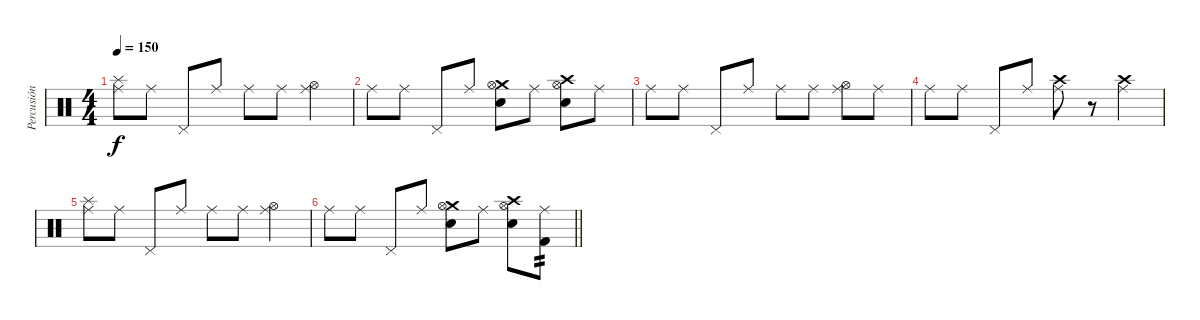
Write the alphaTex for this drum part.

\track ("Percusión" "Percusión") {instrument percussion}
\staff {score}
\articulation defaults
\ts (4 4)
\tempo 150
\clef neutral
\ks c
("Splash (hit)" "Ride (middle)").8{dy f} "Ride (middle)".8 "Pedal Hi-Hat (hit)".8 "Ride (middle)".8 "Ride (middle)".8 "Ride (middle)".8 ("Hi-Hat (open)" "Ride (middle)").4 |
"Ride (middle)".8 "Ride (middle)".8 "Pedal Hi-Hat (hit)".8 "Ride (middle)".8 ("Snare (hit) 2" "Crash medium (hit)" "Hi-Hat (open)").8 "Ride (middle)".8 ("Snare (hit) 2" "Crash high (hit)" "Hi-Hat (open)").8 "Ride (middle)".8 |
"Ride (middle)".8 "Ride (middle)".8 "Pedal Hi-Hat (hit)".8 "Ride (middle)".8 "Ride (middle)".8 "Ride (middle)".8 ("Hi-Hat (open)" "Ride (middle)").8 "Ride (middle)".8 |
"Ride (middle)".8 "Ride (middle)".8 "Pedal Hi-Hat (hit)".8 "Ride (middle)".8 ("Crash high (hit)" "Ride (middle)").8 r.8 ("Crash high (hit)" "Ride (middle)").4 |
("Splash (hit)" "Ride (middle)").8 "Ride (middle)".8 "Pedal Hi-Hat (hit)".8 "Ride (middle)".8 "Ride (middle)".8 "Ride (middle)".8 ("Hi-Hat (open)" "Ride (middle)").4 |
\barLineRight lightlight "Ride (middle)".8 "Ride (middle)".8 "Pedal Hi-Hat (hit)".8 "Ride (middle)".8
("Snare (hit) 2" "Crash medium (hit)" "Hi-Hat (open)").8 "Ride (middle)".8 ("Snare (hit) 2" "Crash high (hit)" "Hi-Hat (open)").8 ("Kick (hit) 2" "Ride (middle)").8{tp 2}
